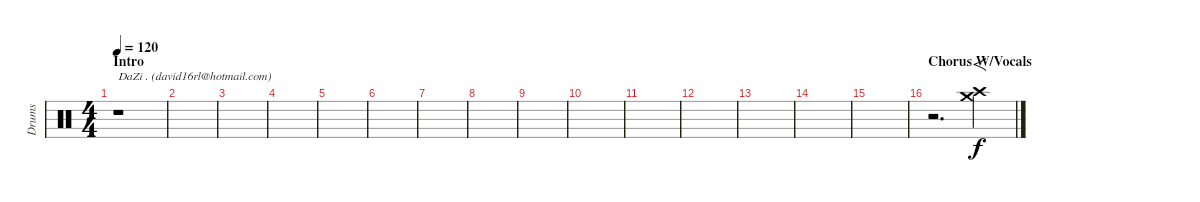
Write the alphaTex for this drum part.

\track ("Drums" "Drums") {instrument percussion}
\staff {score}
\articulation defaults
\ts (4 4)
\section ("" "Intro")
\tempo 120
\clef neutral
\ks c
r.1{txt "DaZi . (david16rl@hotmail.com)" dy f} |
|
|
|
|
|
|
|
|
|
|
|
|
|
|
\section ("" "Chorus W/Vocals")
r.2{d} ("Crash medium (hit)" "Crash high (hit)").4{f}
